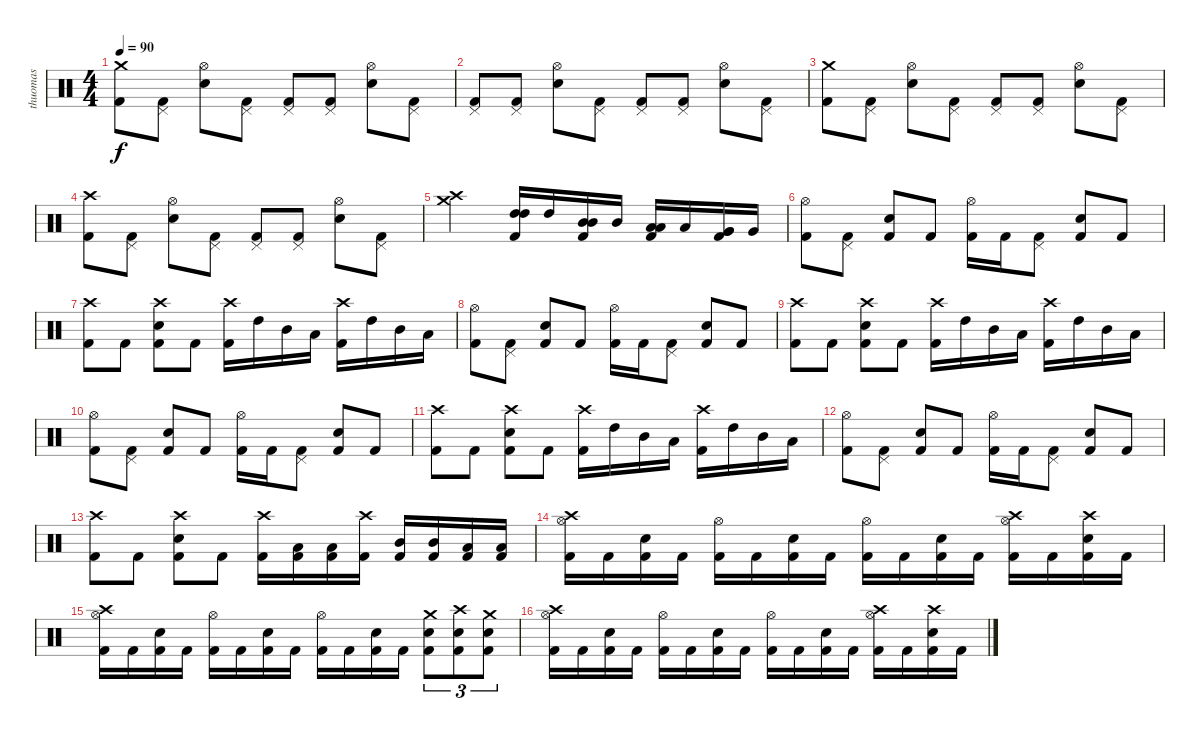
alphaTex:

\track ("thuomas" "thuomas") {instrument percussion}
\staff {score}
\articulation defaults
\ts (4 4)
\tempo 90
\clef neutral
\ks c
("Crash medium (hit)" "Kick (hit) 2").8{dy f} ("Pedal Hi-Hat (hit)" "Kick (hit) 2").8 ("Hi-Hat (open)" "Snare (hit) 2").8 ("Pedal Hi-Hat (hit)" "Kick (hit) 2").8 ("Pedal Hi-Hat (hit)" "Kick (hit) 2").8 ("Pedal Hi-Hat (hit)" "Kick (hit) 2").8 ("Hi-Hat (open)" "Snare (hit) 2").8 ("Pedal Hi-Hat (hit)" "Kick (hit) 2").8 |
("Pedal Hi-Hat (hit)" "Kick (hit) 2").8 ("Pedal Hi-Hat (hit)" "Kick (hit) 2").8 ("Hi-Hat (open)" "Snare (hit) 2").8 ("Pedal Hi-Hat (hit)" "Kick (hit) 2").8 ("Pedal Hi-Hat (hit)" "Kick (hit) 2").8 ("Pedal Hi-Hat (hit)" "Kick (hit) 2").8 ("Hi-Hat (open)" "Snare (hit) 2").8 ("Pedal Hi-Hat (hit)" "Kick (hit) 2").8 |
("Crash medium (hit)" "Kick (hit) 2").8 ("Pedal Hi-Hat (hit)" "Kick (hit) 2").8 ("Hi-Hat (open)" "Snare (hit) 2").8 ("Pedal Hi-Hat (hit)" "Kick (hit) 2").8 ("Pedal Hi-Hat (hit)" "Kick (hit) 2").8 ("Pedal Hi-Hat (hit)" "Kick (hit) 2").8 ("Hi-Hat (open)" "Snare (hit) 2").8 ("Pedal Hi-Hat (hit)" "Kick (hit) 2").8 |
("Crash high (hit)" "Kick (hit) 2").8 ("Pedal Hi-Hat (hit)" "Kick (hit) 2").8 ("Hi-Hat (open)" "Snare (hit) 2").8 ("Pedal Hi-Hat (hit)" "Kick (hit) 2").8 ("Pedal Hi-Hat (hit)" "Kick (hit) 2").8 ("Pedal Hi-Hat (hit)" "Kick (hit) 2").8 ("Hi-Hat (open)" "Snare (hit) 2").8 ("Pedal Hi-Hat (hit)" "Kick (hit) 2").8 |
("Crash high (hit)" "Crash medium (hit)").2 ("High Tom (hit)" "High Tom (hit)" "Kick (hit) 2").16 "High Tom (hit)".16 ("Mid Tom (hit)" "Mid Tom (hit)" "Kick (hit) 2").16 "Mid Tom (hit)".16 ("Low Tom (hit)" "Low Tom (hit)" "Kick (hit) 2").16 "Low Tom (hit)".16 ("Very Low Tom (hit)" "Very Low Tom (hit)" "Kick (hit) 2").16 "Very Low Tom (hit)".16 |
("Hi-Hat (open)" "Kick (hit) 2").8 ("Pedal Hi-Hat (hit)" "Kick (hit) 2").8 ("Snare (hit) 2" "Kick (hit) 2").8 "Kick (hit) 2".8 ("Hi-Hat (open)" "Kick (hit) 2").16 "Kick (hit) 2".16 ("Pedal Hi-Hat (hit)" "Kick (hit) 2").8 ("Snare (hit) 2" "Kick (hit) 2").8 "Kick (hit) 2".8 |
("Crash high (hit)" "Kick (hit) 2").8 "Kick (hit) 2".8 ("Crash high (hit)" "Snare (hit) 2" "Kick (hit) 2").8 "Kick (hit) 2".8 ("Crash high (hit)" "Kick (hit) 2").16 "High Tom (hit)".16 "Mid Tom (hit)".16 "Low Tom (hit)".16 ("Crash high (hit)" "Kick (hit) 2").16 "High Tom (hit)".16 "Mid Tom (hit)".16 "Low Tom (hit)".16 |
("Hi-Hat (open)" "Kick (hit) 2").8 ("Pedal Hi-Hat (hit)" "Kick (hit) 2").8 ("Snare (hit) 2" "Kick (hit) 2").8 "Kick (hit) 2".8 ("Hi-Hat (open)" "Kick (hit) 2").16 "Kick (hit) 2".16 ("Pedal Hi-Hat (hit)" "Kick (hit) 2").8 ("Snare (hit) 2" "Kick (hit) 2").8 "Kick (hit) 2".8 |
("Crash high (hit)" "Kick (hit) 2").8 "Kick (hit) 2".8 ("Crash high (hit)" "Snare (hit) 2" "Kick (hit) 2").8 "Kick (hit) 2".8 ("Crash high (hit)" "Kick (hit) 2").16 "High Tom (hit)".16 "Mid Tom (hit)".16 "Low Tom (hit)".16 ("Crash high (hit)" "Kick (hit) 2").16 "High Tom (hit)".16 "Mid Tom (hit)".16 "Low Tom (hit)".16 |
("Hi-Hat (open)" "Kick (hit) 2").8 ("Pedal Hi-Hat (hit)" "Kick (hit) 2").8 ("Snare (hit) 2" "Kick (hit) 2").8 "Kick (hit) 2".8 ("Hi-Hat (open)" "Kick (hit) 2").16 "Kick (hit) 2".16 ("Pedal Hi-Hat (hit)" "Kick (hit) 2").8 ("Snare (hit) 2" "Kick (hit) 2").8 "Kick (hit) 2".8 |
("Crash high (hit)" "Kick (hit) 2").8 "Kick (hit) 2".8 ("Crash high (hit)" "Snare (hit) 2" "Kick (hit) 2").8 "Kick (hit) 2".8 ("Crash high (hit)" "Kick (hit) 2").16 "High Tom (hit)".16 "Mid Tom (hit)".16 "Low Tom (hit)".16 ("Crash high (hit)" "Kick (hit) 2").16 "High Tom (hit)".16 "Mid Tom (hit)".16 "Low Tom (hit)".16 |
("Hi-Hat (open)" "Kick (hit) 2").8 ("Pedal Hi-Hat (hit)" "Kick (hit) 2").8 ("Snare (hit) 2" "Kick (hit) 2").8 "Kick (hit) 2".8 ("Hi-Hat (open)" "Kick (hit) 2").16 "Kick (hit) 2".16 ("Pedal Hi-Hat (hit)" "Kick (hit) 2").8 ("Snare (hit) 2" "Kick (hit) 2").8 "Kick (hit) 2".8 |
("Crash high (hit)" "Kick (hit) 2").8 "Kick (hit) 2".8 ("Crash high (hit)" "Snare (hit) 2" "Kick (hit) 2").8 "Kick (hit) 2".8 ("Crash high (hit)" "Kick (hit) 2").16 ("Low Tom (hit)" "Kick (hit) 2").16 ("Low Tom (hit)" "Kick (hit) 2").16 ("Crash high (hit)" "Kick (hit) 2").16 ("Mid Tom (hit)" "Kick (hit) 2").16 ("Mid Tom (hit)" "Kick (hit) 2").16 ("Low Tom (hit)" "Kick (hit) 2").16 ("Low Tom (hit)" "Kick (hit) 2").16 |
("Crash high (hit)" "Hi-Hat (open)" "Kick (hit) 2").16 "Kick (hit) 2".16 ("Snare (hit) 2" "Kick (hit) 2").16 "Kick (hit) 2".16 ("Hi-Hat (open)" "Kick (hit) 2").16 "Kick (hit) 2".16 ("Snare (hit) 2" "Kick (hit) 2").16 "Kick (hit) 2".16 ("Hi-Hat (open)" "Kick (hit) 2").16 "Kick (hit) 2".16 ("Snare (hit) 2" "Kick (hit) 2").16 "Kick (hit) 2".16 ("Crash high (hit)" "Hi-Hat (open)" "Kick (hit) 2").16 "Kick (hit) 2".16 ("Crash high (hit)" "Snare (hit) 2" "Kick (hit) 2").16 "Kick (hit) 2".16 |
("Crash high (hit)" "Hi-Hat (open)" "Kick (hit) 2").16 "Kick (hit) 2".16 ("Snare (hit) 2" "Kick (hit) 2").16 "Kick (hit) 2".16 ("Hi-Hat (open)" "Kick (hit) 2").16 "Kick (hit) 2".16 ("Snare (hit) 2" "Kick (hit) 2").16 "Kick (hit) 2".16 ("Hi-Hat (open)" "Kick (hit) 2").16 "Kick (hit) 2".16 ("Snare (hit) 2" "Kick (hit) 2").16 "Kick (hit) 2".16 ("Crash medium (hit)" "Snare (hit) 2" "Kick (hit) 2").8{tu (3 2)} ("Crash high (hit)" "Snare (hit) 2" "Kick (hit) 2").8{tu (3 2)} ("Crash medium (hit)" "Snare (hit) 2" "Kick (hit) 2").8{tu (3 2)} |
("Crash high (hit)" "Hi-Hat (open)" "Kick (hit) 2").16 "Kick (hit) 2".16 ("Snare (hit) 2" "Kick (hit) 2").16 "Kick (hit) 2".16 ("Hi-Hat (open)" "Kick (hit) 2").16 "Kick (hit) 2".16 ("Snare (hit) 2" "Kick (hit) 2").16 "Kick (hit) 2".16 ("Hi-Hat (open)" "Kick (hit) 2").16 "Kick (hit) 2".16 ("Snare (hit) 2" "Kick (hit) 2").16 "Kick (hit) 2".16 ("Crash high (hit)" "Hi-Hat (open)" "Kick (hit) 2").16 "Kick (hit) 2".16 ("Crash high (hit)" "Snare (hit) 2" "Kick (hit) 2").16 "Kick (hit) 2".16
